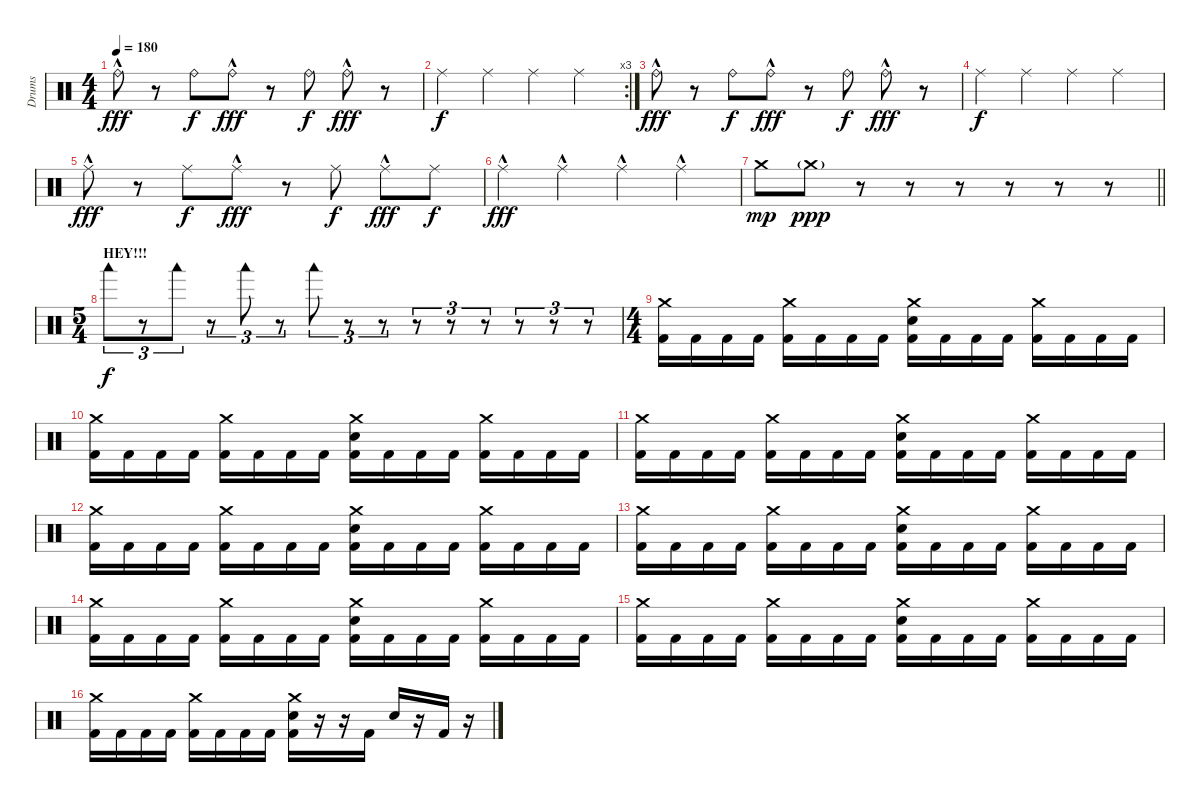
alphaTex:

\track ("Drums" "Drums") {instrument percussion}
\staff {score}
\articulation defaults
\ts (4 4)
\tempo 180
\clef neutral
\ks c "Ride (bell)"{hac}.8{dy fff}
r.8 "Ride (bell)".8{dy f} "Ride (bell)"{hac}.8{dy fff} r.8 "Ride (bell)".8{dy f} "Ride (bell)"{hac}.8{dy fff} r.8 |
\rc 3 "Ride (middle)".4{dy f} "Ride (middle)".4 "Ride (middle)".4 "Ride (middle)".4
|
"Ride (bell)"{hac}.8{dy fff} r.8 "Ride (bell)".8{dy f} "Ride (bell)"{hac}.8{dy fff} r.8 "Ride (bell)".8{dy f} "Ride (bell)"{hac}.8{dy fff} r.8 |
"Ride (middle)".4{dy f} "Ride (middle)".4 "Ride (middle)".4 "Ride (middle)".4 |
"Ride (middle)"{hac}.8{dy fff} r.8 "Ride (middle)".8{dy f} "Ride (middle)"{hac}.8{dy fff} r.8 "Ride (middle)".8{dy f} "Ride (middle)"{hac}.8{dy fff} "Ride (middle)".8{dy f} |
"Ride (middle)"{hac}.4{dy fff} "Ride (middle)"{hac}.4 "Ride (middle)"{hac}.4 "Ride (middle)"{hac}.4 |
\barLineRight lightlight "Crash medium (hit)".8{dy mp} "Crash medium (hit)"{g}.8{dy ppp}
r.8 r.8 r.8 r.8 r.8 r.8 |
\ts (5 4)
\section ("" "HEY!!!")
"Woodblock low (hit)".8{tu (3 2) dy f} r.8{tu (3 2)} "Woodblock low (hit)".8{tu (3 2)} r.8{tu (3 2)} "Woodblock low (hit)".8{tu (3 2)} r.8{tu (3 2)} "Woodblock low (hit)".8{tu (3 2)} r.8{tu (3 2)} r.8{tu (3 2)} r.8{tu (3 2)} r.8{tu (3 2)} r.8{tu (3 2)} r.8{tu (3 2)} r.8{tu (3 2)} r.8{tu (3 2)} |
\ts (4 4)
("Crash medium (hit)" "Kick (hit) 2").16 "Kick (hit) 2".16 "Kick (hit) 2".16 "Kick (hit) 2".16 ("Crash medium (hit)" "Kick (hit) 2").16 "Kick (hit) 2".16 "Kick (hit) 2".16 "Kick (hit) 2".16 ("Crash medium (hit)" "Electric Snare (hit)" "Kick (hit) 2").16 "Kick (hit) 2".16 "Kick (hit) 2".16 "Kick (hit) 2".16 ("Crash medium (hit)" "Kick (hit) 2").16 "Kick (hit) 2".16 "Kick (hit) 2".16 "Kick (hit) 2".16 |
("Crash medium (hit)" "Kick (hit) 2").16 "Kick (hit) 2".16 "Kick (hit) 2".16 "Kick (hit) 2".16 ("Crash medium (hit)" "Kick (hit) 2").16 "Kick (hit) 2".16 "Kick (hit) 2".16 "Kick (hit) 2".16 ("Crash medium (hit)" "Electric Snare (hit)" "Kick (hit) 2").16 "Kick (hit) 2".16 "Kick (hit) 2".16 "Kick (hit) 2".16 ("Crash medium (hit)" "Kick (hit) 2").16 "Kick (hit) 2".16 "Kick (hit) 2".16 "Kick (hit) 2".16 |
("Crash medium (hit)" "Kick (hit) 2").16 "Kick (hit) 2".16 "Kick (hit) 2".16 "Kick (hit) 2".16 ("Crash medium (hit)" "Kick (hit) 2").16 "Kick (hit) 2".16 "Kick (hit) 2".16 "Kick (hit) 2".16 ("Crash medium (hit)" "Electric Snare (hit)" "Kick (hit) 2").16 "Kick (hit) 2".16 "Kick (hit) 2".16 "Kick (hit) 2".16 ("Crash medium (hit)" "Kick (hit) 2").16 "Kick (hit) 2".16 "Kick (hit) 2".16 "Kick (hit) 2".16 |
("Crash medium (hit)" "Kick (hit) 2").16 "Kick (hit) 2".16 "Kick (hit) 2".16 "Kick (hit) 2".16 ("Crash medium (hit)" "Kick (hit) 2").16 "Kick (hit) 2".16 "Kick (hit) 2".16 "Kick (hit) 2".16 ("Crash medium (hit)" "Electric Snare (hit)" "Kick (hit) 2").16 "Kick (hit) 2".16 "Kick (hit) 2".16 "Kick (hit) 2".16 ("Crash medium (hit)" "Kick (hit) 2").16 "Kick (hit) 2".16 "Kick (hit) 2".16 "Kick (hit) 2".16 |
("Crash medium (hit)" "Kick (hit) 2").16 "Kick (hit) 2".16 "Kick (hit) 2".16 "Kick (hit) 2".16 ("Crash medium (hit)" "Kick (hit) 2").16 "Kick (hit) 2".16 "Kick (hit) 2".16 "Kick (hit) 2".16 ("Crash medium (hit)" "Electric Snare (hit)" "Kick (hit) 2").16 "Kick (hit) 2".16 "Kick (hit) 2".16 "Kick (hit) 2".16 ("Crash medium (hit)" "Kick (hit) 2").16 "Kick (hit) 2".16 "Kick (hit) 2".16 "Kick (hit) 2".16 |
("Crash medium (hit)" "Kick (hit) 2").16 "Kick (hit) 2".16 "Kick (hit) 2".16 "Kick (hit) 2".16 ("Crash medium (hit)" "Kick (hit) 2").16 "Kick (hit) 2".16 "Kick (hit) 2".16 "Kick (hit) 2".16 ("Crash medium (hit)" "Electric Snare (hit)" "Kick (hit) 2").16 "Kick (hit) 2".16 "Kick (hit) 2".16 "Kick (hit) 2".16 ("Crash medium (hit)" "Kick (hit) 2").16 "Kick (hit) 2".16 "Kick (hit) 2".16 "Kick (hit) 2".16 |
("Crash medium (hit)" "Kick (hit) 2").16 "Kick (hit) 2".16 "Kick (hit) 2".16 "Kick (hit) 2".16 ("Crash medium (hit)" "Kick (hit) 2").16 "Kick (hit) 2".16 "Kick (hit) 2".16 "Kick (hit) 2".16 ("Crash medium (hit)" "Electric Snare (hit)" "Kick (hit) 2").16 "Kick (hit) 2".16 "Kick (hit) 2".16 "Kick (hit) 2".16 ("Crash medium (hit)" "Kick (hit) 2").16 "Kick (hit) 2".16 "Kick (hit) 2".16 "Kick (hit) 2".16 |
("Crash medium (hit)" "Kick (hit) 2").16 "Kick (hit) 2".16 "Kick (hit) 2".16 "Kick (hit) 2".16 ("Crash medium (hit)" "Kick (hit) 2").16 "Kick (hit) 2".16 "Kick (hit) 2".16 "Kick (hit) 2".16 ("Crash medium (hit)" "Electric Snare (hit)" "Kick (hit) 2").16 r.16 r.16 "Kick (hit) 2".16 "Electric Snare (hit)".16 r.16 "Kick (hit) 2".16 r.16
